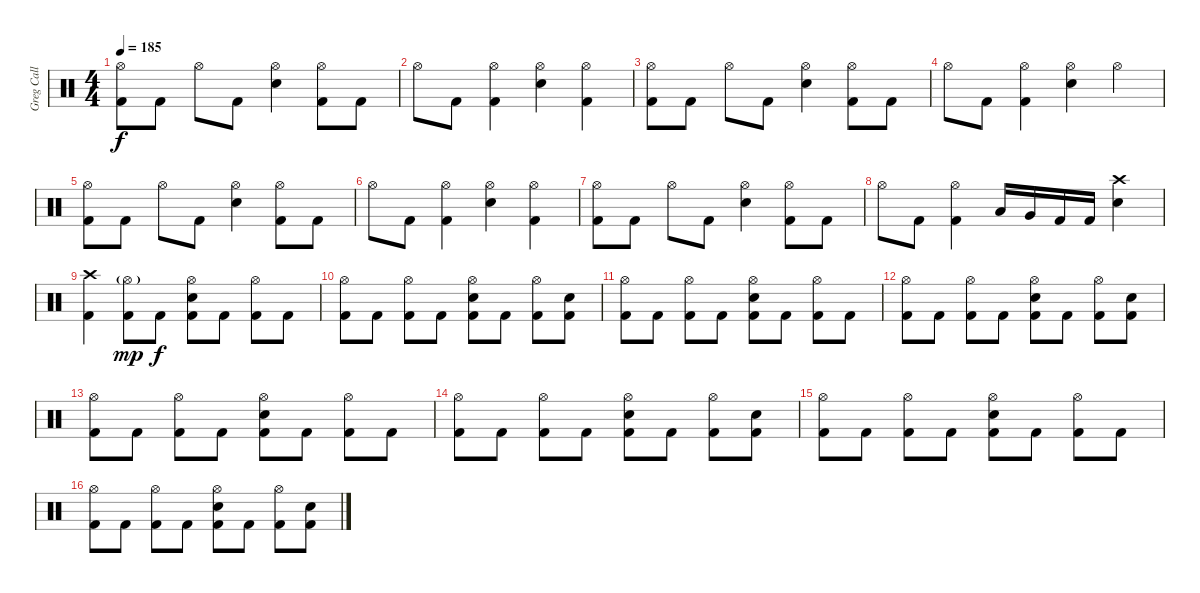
\track ("Greg Call (Drums)" "Greg Call ") {instrument percussion}
\staff {score}
\articulation defaults
\ts (4 4)
\tempo 185
\clef neutral
\ks c
("Hi-Hat (open)" "Kick (hit) 2").8{dy f} "Kick (hit) 2".8 "Hi-Hat (open)".8 "Kick (hit) 2".8 ("Hi-Hat (open)" "Snare (hit) 2").4 ("Hi-Hat (open)" "Kick (hit) 2").8 "Kick (hit) 2".8 |
"Hi-Hat (open)".8 "Kick (hit) 2".8 ("Hi-Hat (open)" "Kick (hit) 2").4 ("Hi-Hat (open)" "Snare (hit) 2").4 ("Hi-Hat (open)" "Kick (hit) 2").4 |
("Hi-Hat (open)" "Kick (hit) 2").8 "Kick (hit) 2".8 "Hi-Hat (open)".8 "Kick (hit) 2".8 ("Hi-Hat (open)" "Snare (hit) 2").4 ("Hi-Hat (open)" "Kick (hit) 2").8 "Kick (hit) 2".8 |
"Hi-Hat (open)".8 "Kick (hit) 2".8 ("Hi-Hat (open)" "Kick (hit) 2").4 ("Hi-Hat (open)" "Snare (hit) 2").4 "Hi-Hat (open)".4 |
("Hi-Hat (open)" "Kick (hit) 2").8 "Kick (hit) 2".8 "Hi-Hat (open)".8 "Kick (hit) 2".8 ("Hi-Hat (open)" "Snare (hit) 2").4 ("Hi-Hat (open)" "Kick (hit) 2").8 "Kick (hit) 2".8 |
"Hi-Hat (open)".8 "Kick (hit) 2".8 ("Hi-Hat (open)" "Kick (hit) 2").4 ("Hi-Hat (open)" "Snare (hit) 2").4 ("Hi-Hat (open)" "Kick (hit) 2").4 |
("Hi-Hat (open)" "Kick (hit) 2").8 "Kick (hit) 2".8 "Hi-Hat (open)".8 "Kick (hit) 2".8 ("Hi-Hat (open)" "Snare (hit) 2").4 ("Hi-Hat (open)" "Kick (hit) 2").8 "Kick (hit) 2".8 |
"Hi-Hat (open)".8 "Kick (hit) 2".8 ("Hi-Hat (open)" "Kick (hit) 2").4 "Low Tom (hit)".16 "Very Low Tom (hit)".16 "Kick (hit) 2".16 "Kick (hit) 2".16 ("Crash high (hit)" "Snare (hit) 2").4 |
("Crash high (hit)" "Kick (hit) 2").4 ("Hi-Hat (open)"{g} "Kick (hit) 2").8{dy mp} "Kick (hit) 2".8{dy f} ("Snare (hit) 2" "Hi-Hat (open)" "Kick (hit) 2").8 "Kick (hit) 2".8 ("Hi-Hat (open)" "Kick (hit) 2").8 "Kick (hit) 2".8 |
("Hi-Hat (open)" "Kick (hit) 2").8 "Kick (hit) 2".8 ("Hi-Hat (open)" "Kick (hit) 2").8 "Kick (hit) 2".8 ("Snare (hit) 2" "Hi-Hat (open)" "Kick (hit) 2").8 "Kick (hit) 2".8 ("Hi-Hat (open)" "Kick (hit) 2").8 ("Snare (hit) 2" "Kick (hit) 2").8 |
("Hi-Hat (open)" "Kick (hit) 2").8 "Kick (hit) 2".8 ("Hi-Hat (open)" "Kick (hit) 2").8 "Kick (hit) 2".8 ("Snare (hit) 2" "Hi-Hat (open)" "Kick (hit) 2").8 "Kick (hit) 2".8 ("Hi-Hat (open)" "Kick (hit) 2").8 "Kick (hit) 2".8 |
("Hi-Hat (open)" "Kick (hit) 2").8 "Kick (hit) 2".8 ("Hi-Hat (open)" "Kick (hit) 2").8 "Kick (hit) 2".8 ("Snare (hit) 2" "Hi-Hat (open)" "Kick (hit) 2").8 "Kick (hit) 2".8 ("Hi-Hat (open)" "Kick (hit) 2").8 ("Snare (hit) 2" "Kick (hit) 2").8 |
("Hi-Hat (open)" "Kick (hit) 2").8 "Kick (hit) 2".8 ("Hi-Hat (open)" "Kick (hit) 2").8 "Kick (hit) 2".8 ("Snare (hit) 2" "Hi-Hat (open)" "Kick (hit) 2").8 "Kick (hit) 2".8 ("Hi-Hat (open)" "Kick (hit) 2").8 "Kick (hit) 2".8 |
("Hi-Hat (open)" "Kick (hit) 2").8 "Kick (hit) 2".8 ("Hi-Hat (open)" "Kick (hit) 2").8 "Kick (hit) 2".8 ("Snare (hit) 2" "Hi-Hat (open)" "Kick (hit) 2").8 "Kick (hit) 2".8 ("Hi-Hat (open)" "Kick (hit) 2").8 ("Snare (hit) 2" "Kick (hit) 2").8 |
("Hi-Hat (open)" "Kick (hit) 2").8 "Kick (hit) 2".8 ("Hi-Hat (open)" "Kick (hit) 2").8 "Kick (hit) 2".8 ("Snare (hit) 2" "Hi-Hat (open)" "Kick (hit) 2").8 "Kick (hit) 2".8 ("Hi-Hat (open)" "Kick (hit) 2").8 "Kick (hit) 2".8 |
("Hi-Hat (open)" "Kick (hit) 2").8 "Kick (hit) 2".8 ("Hi-Hat (open)" "Kick (hit) 2").8 "Kick (hit) 2".8 ("Snare (hit) 2" "Hi-Hat (open)" "Kick (hit) 2").8 "Kick (hit) 2".8 ("Hi-Hat (open)" "Kick (hit) 2").8 ("Snare (hit) 2" "Kick (hit) 2").8
